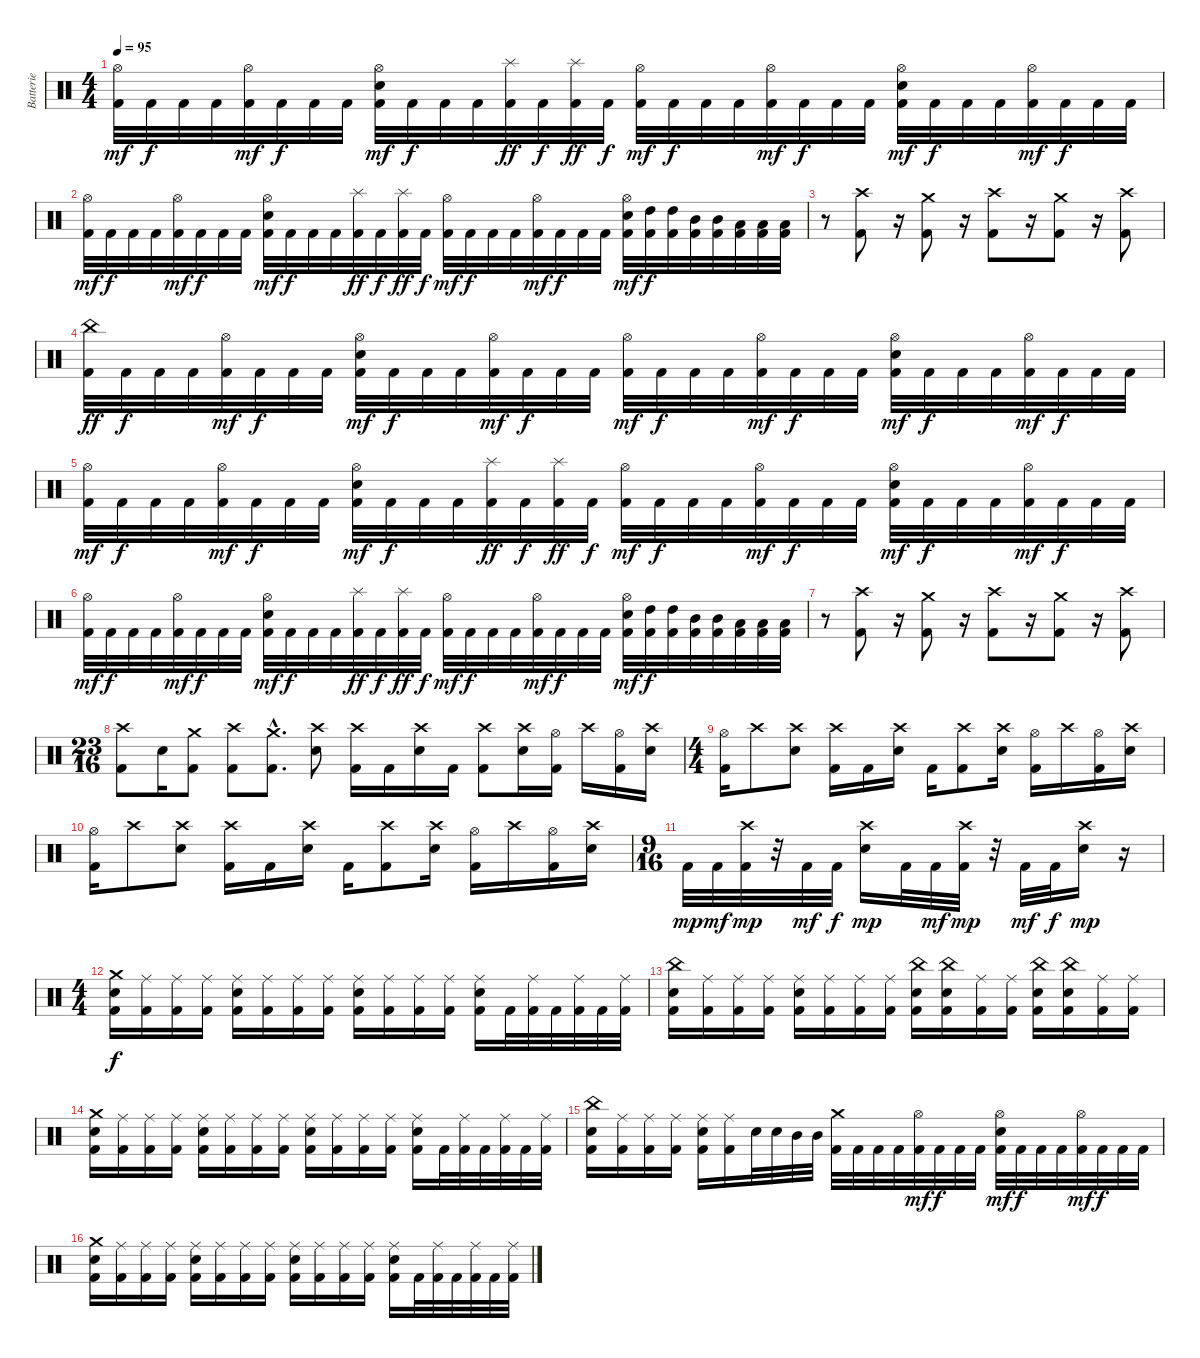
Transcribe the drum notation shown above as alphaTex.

\track ("Batterie" "Batterie") {instrument percussion}
\staff {score}
\articulation defaults
\ts (4 4)
\tempo 95
\clef neutral
\ks c
("Hi-Hat (open)" "Kick (hit) 2").32{dy mf} "Kick (hit) 2".32{dy f} "Kick (hit) 2".32 "Kick (hit) 2".32 ("Hi-Hat (open)" "Kick (hit) 2").32{dy mf} "Kick (hit) 2".32{dy f} "Kick (hit) 2".32 "Kick (hit) 2".32 ("Hi-Hat (open)" "Electric Snare (hit)" "Kick (hit) 2").32{dy mf} "Kick (hit) 2".32{dy f} "Kick (hit) 2".32 "Kick (hit) 2".32 ("Splash (hit)" "Kick (hit) 2").32{dy ff} "Kick (hit) 2".32{dy f} ("Splash (hit)" "Kick (hit) 2").32{dy ff} "Kick (hit) 2".32{dy f} ("Hi-Hat (open)" "Kick (hit) 2").32{dy mf} "Kick (hit) 2".32{dy f} "Kick (hit) 2".32 "Kick (hit) 2".32 ("Hi-Hat (open)" "Kick (hit) 2").32{dy mf} "Kick (hit) 2".32{dy f} "Kick (hit) 2".32 "Kick (hit) 2".32 ("Hi-Hat (open)" "Electric Snare (hit)" "Kick (hit) 2").32{dy mf} "Kick (hit) 2".32{dy f} "Kick (hit) 2".32 "Kick (hit) 2".32 ("Hi-Hat (open)" "Kick (hit) 2").32{dy mf} "Kick (hit) 2".32{dy f} "Kick (hit) 2".32 "Kick (hit) 2".32 |
("Hi-Hat (open)" "Kick (hit) 2").32{dy mf} "Kick (hit) 2".32{dy f} "Kick (hit) 2".32 "Kick (hit) 2".32 ("Hi-Hat (open)" "Kick (hit) 2").32{dy mf} "Kick (hit) 2".32{dy f} "Kick (hit) 2".32 "Kick (hit) 2".32 ("Hi-Hat (open)" "Electric Snare (hit)" "Kick (hit) 2").32{dy mf} "Kick (hit) 2".32{dy f} "Kick (hit) 2".32 "Kick (hit) 2".32 ("Splash (hit)" "Kick (hit) 2").32{dy ff} "Kick (hit) 2".32{dy f} ("Splash (hit)" "Kick (hit) 2").32{dy ff} "Kick (hit) 2".32{dy f} ("Hi-Hat (open)" "Kick (hit) 2").32{dy mf} "Kick (hit) 2".32{dy f} "Kick (hit) 2".32 "Kick (hit) 2".32 ("Hi-Hat (open)" "Kick (hit) 2").32{dy mf} "Kick (hit) 2".32{dy f} "Kick (hit) 2".32 "Kick (hit) 2".32 ("Hi-Hat (open)" "Electric Snare (hit)" "Kick (hit) 2").32{dy mf} ("High Tom (hit)" "Kick (hit) 2").32{dy f} ("High Tom (hit)" "Kick (hit) 2").32 ("Mid Tom (hit)" "Kick (hit) 2").32 ("Mid Tom (hit)" "Kick (hit) 2").32 ("Low Tom (hit)" "Kick (hit) 2").32 ("Low Tom (hit)" "Kick (hit) 2").32 ("Low Tom (hit)" "Kick (hit) 2").32 |
r.8 ("Crash high (hit)" "Kick (hit) 2").8 r.16 ("Crash medium (hit)" "Kick (hit) 2").8 r.16 ("Crash high (hit)" "Kick (hit) 2").8 r.16 ("Crash medium (hit)" "Kick (hit) 2").8 r.16 ("Crash high (hit)" "Kick (hit) 2").8 |
("China (hit)" "Kick (hit) 2").32{dy ff} "Kick (hit) 2".32{dy f} "Kick (hit) 2".32 "Kick (hit) 2".32 ("Hi-Hat (open)" "Kick (hit) 2").32{dy mf} "Kick (hit) 2".32{dy f} "Kick (hit) 2".32 "Kick (hit) 2".32 ("Hi-Hat (open)" "Electric Snare (hit)" "Kick (hit) 2").32{dy mf} "Kick (hit) 2".32{dy f} "Kick (hit) 2".32 "Kick (hit) 2".32 ("Hi-Hat (open)" "Kick (hit) 2").32{dy mf} "Kick (hit) 2".32{dy f} "Kick (hit) 2".32 "Kick (hit) 2".32 ("Hi-Hat (open)" "Kick (hit) 2").32{dy mf} "Kick (hit) 2".32{dy f} "Kick (hit) 2".32 "Kick (hit) 2".32 ("Hi-Hat (open)" "Kick (hit) 2").32{dy mf} "Kick (hit) 2".32{dy f} "Kick (hit) 2".32 "Kick (hit) 2".32 ("Hi-Hat (open)" "Electric Snare (hit)" "Kick (hit) 2").32{dy mf} "Kick (hit) 2".32{dy f} "Kick (hit) 2".32 "Kick (hit) 2".32 ("Hi-Hat (open)" "Kick (hit) 2").32{dy mf} "Kick (hit) 2".32{dy f} "Kick (hit) 2".32 "Kick (hit) 2".32 |
("Hi-Hat (open)" "Kick (hit) 2").32{dy mf} "Kick (hit) 2".32{dy f} "Kick (hit) 2".32 "Kick (hit) 2".32 ("Hi-Hat (open)" "Kick (hit) 2").32{dy mf} "Kick (hit) 2".32{dy f} "Kick (hit) 2".32 "Kick (hit) 2".32 ("Hi-Hat (open)" "Electric Snare (hit)" "Kick (hit) 2").32{dy mf} "Kick (hit) 2".32{dy f} "Kick (hit) 2".32 "Kick (hit) 2".32 ("Splash (hit)" "Kick (hit) 2").32{dy ff} "Kick (hit) 2".32{dy f} ("Splash (hit)" "Kick (hit) 2").32{dy ff} "Kick (hit) 2".32{dy f} ("Hi-Hat (open)" "Kick (hit) 2").32{dy mf} "Kick (hit) 2".32{dy f} "Kick (hit) 2".32 "Kick (hit) 2".32 ("Hi-Hat (open)" "Kick (hit) 2").32{dy mf} "Kick (hit) 2".32{dy f} "Kick (hit) 2".32 "Kick (hit) 2".32 ("Hi-Hat (open)" "Electric Snare (hit)" "Kick (hit) 2").32{dy mf} "Kick (hit) 2".32{dy f} "Kick (hit) 2".32 "Kick (hit) 2".32 ("Hi-Hat (open)" "Kick (hit) 2").32{dy mf} "Kick (hit) 2".32{dy f} "Kick (hit) 2".32 "Kick (hit) 2".32 |
("Hi-Hat (open)" "Kick (hit) 2").32{dy mf} "Kick (hit) 2".32{dy f} "Kick (hit) 2".32 "Kick (hit) 2".32 ("Hi-Hat (open)" "Kick (hit) 2").32{dy mf} "Kick (hit) 2".32{dy f} "Kick (hit) 2".32 "Kick (hit) 2".32 ("Hi-Hat (open)" "Electric Snare (hit)" "Kick (hit) 2").32{dy mf} "Kick (hit) 2".32{dy f} "Kick (hit) 2".32 "Kick (hit) 2".32 ("Splash (hit)" "Kick (hit) 2").32{dy ff} "Kick (hit) 2".32{dy f} ("Splash (hit)" "Kick (hit) 2").32{dy ff} "Kick (hit) 2".32{dy f} ("Hi-Hat (open)" "Kick (hit) 2").32{dy mf} "Kick (hit) 2".32{dy f} "Kick (hit) 2".32 "Kick (hit) 2".32 ("Hi-Hat (open)" "Kick (hit) 2").32{dy mf} "Kick (hit) 2".32{dy f} "Kick (hit) 2".32 "Kick (hit) 2".32 ("Hi-Hat (open)" "Electric Snare (hit)" "Kick (hit) 2").32{dy mf} ("High Tom (hit)" "Kick (hit) 2").32{dy f} ("High Tom (hit)" "Kick (hit) 2").32 ("Mid Tom (hit)" "Kick (hit) 2").32 ("Mid Tom (hit)" "Kick (hit) 2").32 ("Low Tom (hit)" "Kick (hit) 2").32 ("Low Tom (hit)" "Kick (hit) 2").32 ("Low Tom (hit)" "Kick (hit) 2").32 |
r.8 ("Crash high (hit)" "Kick (hit) 2").8 r.16 ("Crash medium (hit)" "Kick (hit) 2").8 r.16 ("Crash high (hit)" "Kick (hit) 2").8 r.16 ("Crash medium (hit)" "Kick (hit) 2").8 r.16 ("Crash high (hit)" "Kick (hit) 2").8 |
\ts (23 16)
("Crash high (hit)" "Kick (hit) 2").8 "Electric Snare (hit)".16 ("Crash medium (hit)" "Kick (hit) 2").8 ("Crash high (hit)" "Kick (hit) 2").8 ("Crash medium (hit)"{hac} "Kick (hit) 2"{hac}).8{d} ("Crash high (hit)" "Electric Snare (hit)").8 ("Crash high (hit)" "Kick (hit) 2").16 "Kick (hit) 2".16 ("Crash high (hit)" "Electric Snare (hit)").16 "Kick (hit) 2".16 ("Crash high (hit)" "Kick (hit) 2").8 ("Crash high (hit)" "Electric Snare (hit)").16 ("Hi-Hat (open)" "Kick (hit) 2").16 "Crash high (hit)".16 ("Hi-Hat (open)" "Kick (hit) 2").16 ("Crash high (hit)" "Electric Snare (hit)").16 |
\ts (4 4)
("Hi-Hat (open)" "Kick (hit) 2").16 "Crash high (hit)".8 ("Crash high (hit)" "Electric Snare (hit)").8 ("Crash high (hit)" "Kick (hit) 2").16 "Kick (hit) 2".16 ("Crash high (hit)" "Electric Snare (hit)").16 "Kick (hit) 2".16 ("Crash high (hit)" "Kick (hit) 2").8 ("Crash high (hit)" "Electric Snare (hit)").16 ("Hi-Hat (open)" "Kick (hit) 2").16 "Crash high (hit)".16 ("Hi-Hat (open)" "Kick (hit) 2").16 ("Crash high (hit)" "Electric Snare (hit)").16 |
("Hi-Hat (open)" "Kick (hit) 2").16 "Crash high (hit)".8 ("Crash high (hit)" "Electric Snare (hit)").8 ("Crash high (hit)" "Kick (hit) 2").16 "Kick (hit) 2".16 ("Crash high (hit)" "Electric Snare (hit)").16 "Kick (hit) 2".16 ("Crash high (hit)" "Kick (hit) 2").8 ("Crash high (hit)" "Electric Snare (hit)").16 ("Hi-Hat (open)" "Kick (hit) 2").16 "Crash high (hit)".16 ("Hi-Hat (open)" "Kick (hit) 2").16 ("Crash high (hit)" "Electric Snare (hit)").16 |
\ts (9 16)
"Kick (hit) 2".32{dy mp} "Kick (hit) 2".32{dy mf} ("Crash high (hit)" "Kick (hit) 2").32{dy mp} r.32 "Kick (hit) 2".32{dy mf} "Kick (hit) 2".32{dy f} ("Crash high (hit)" "Electric Snare (hit)").16{dy mp} "Kick (hit) 2".32 "Kick (hit) 2".32{dy mf} ("Crash high (hit)" "Kick (hit) 2").32{dy mp} r.32 "Kick (hit) 2".32{dy mf} "Kick (hit) 2".32{dy f} ("Crash high (hit)" "Electric Snare (hit)").16{dy mp} r.16 |
\ts (4 4)
("Crash medium (hit)" "Electric Snare (hit)" "Kick (hit) 2").16{dy f} ("Ride (middle)" "Kick (hit) 2").16 ("Ride (middle)" "Kick (hit) 2").16 ("Ride (middle)" "Kick (hit) 2").16 ("Ride (middle)" "Electric Snare (hit)" "Kick (hit) 2").16 ("Ride (middle)" "Kick (hit) 2").16 ("Ride (middle)" "Kick (hit) 2").16 ("Ride (middle)" "Kick (hit) 2").16 ("Ride (middle)" "Electric Snare (hit)" "Kick (hit) 2").16 ("Ride (middle)" "Kick (hit) 2").16 ("Ride (middle)" "Kick (hit) 2").16 ("Ride (middle)" "Kick (hit) 2").16 ("Ride (middle)" "Electric Snare (hit)" "Kick (hit) 2").16 "Kick (hit) 2".32 ("Ride (middle)" "Kick (hit) 2").32 "Kick (hit) 2".32 ("Ride (middle)" "Kick (hit) 2").32 "Kick (hit) 2".32 ("Ride (middle)" "Kick (hit) 2").32 |
("China (hit)" "Electric Snare (hit)" "Kick (hit) 2").16 ("Ride (middle)" "Kick (hit) 2").16 ("Ride (middle)" "Kick (hit) 2").16 ("Ride (middle)" "Kick (hit) 2").16 ("Ride (middle)" "Electric Snare (hit)" "Kick (hit) 2").16 ("Ride (middle)" "Kick (hit) 2").16 ("Ride (middle)" "Kick (hit) 2").16 ("Ride (middle)" "Kick (hit) 2").16 ("China (hit)" "Electric Snare (hit)" "Kick (hit) 2").16 ("China (hit)" "Electric Snare (hit)" "Kick (hit) 2").16 ("Ride (middle)" "Kick (hit) 2").16 ("Ride (middle)" "Kick (hit) 2").16 ("China (hit)" "Electric Snare (hit)" "Kick (hit) 2").16 ("China (hit)" "Electric Snare (hit)" "Kick (hit) 2").16 ("Ride (middle)" "Kick (hit) 2").16 ("Ride (middle)" "Kick (hit) 2").16 |
("Crash medium (hit)" "Electric Snare (hit)" "Kick (hit) 2").16 ("Ride (middle)" "Kick (hit) 2").16 ("Ride (middle)" "Kick (hit) 2").16 ("Ride (middle)" "Kick (hit) 2").16 ("Ride (middle)" "Electric Snare (hit)" "Kick (hit) 2").16 ("Ride (middle)" "Kick (hit) 2").16 ("Ride (middle)" "Kick (hit) 2").16 ("Ride (middle)" "Kick (hit) 2").16 ("Ride (middle)" "Electric Snare (hit)" "Kick (hit) 2").16 ("Ride (middle)" "Kick (hit) 2").16 ("Ride (middle)" "Kick (hit) 2").16 ("Ride (middle)" "Kick (hit) 2").16 ("Ride (middle)" "Electric Snare (hit)" "Kick (hit) 2").16 "Kick (hit) 2".32 ("Ride (middle)" "Kick (hit) 2").32 "Kick (hit) 2".32 ("Ride (middle)" "Kick (hit) 2").32 "Kick (hit) 2".32 ("Ride (middle)" "Kick (hit) 2").32 |
("China (hit)" "Electric Snare (hit)" "Kick (hit) 2").16 ("Ride (middle)" "Kick (hit) 2").16 ("Ride (middle)" "Kick (hit) 2").16 ("Ride (middle)" "Kick (hit) 2").16 ("Ride (middle)" "Electric Snare (hit)" "Kick (hit) 2").16 ("Ride (middle)" "Kick (hit) 2").16 "Electric Snare (hit)".32 "Electric Snare (hit)".32 "Mid Tom (hit)".32 "Mid Tom (hit)".32 ("Crash medium (hit)" "Kick (hit) 2").32 "Kick (hit) 2".32 "Kick (hit) 2".32 "Kick (hit) 2".32 ("Hi-Hat (open)" "Kick (hit) 2").32{dy mf} "Kick (hit) 2".32{dy f} "Kick (hit) 2".32 "Kick (hit) 2".32 ("Hi-Hat (open)" "Electric Snare (hit)" "Kick (hit) 2").32{dy mf} "Kick (hit) 2".32{dy f} "Kick (hit) 2".32 "Kick (hit) 2".32 ("Hi-Hat (open)" "Kick (hit) 2").32{dy mf} "Kick (hit) 2".32{dy f} "Kick (hit) 2".32 "Kick (hit) 2".32 |
("Crash medium (hit)" "Electric Snare (hit)" "Kick (hit) 2").16 ("Ride (middle)" "Kick (hit) 2").16 ("Ride (middle)" "Kick (hit) 2").16 ("Ride (middle)" "Kick (hit) 2").16 ("Ride (middle)" "Electric Snare (hit)" "Kick (hit) 2").16 ("Ride (middle)" "Kick (hit) 2").16 ("Ride (middle)" "Kick (hit) 2").16 ("Ride (middle)" "Kick (hit) 2").16 ("Ride (middle)" "Electric Snare (hit)" "Kick (hit) 2").16 ("Ride (middle)" "Kick (hit) 2").16 ("Ride (middle)" "Kick (hit) 2").16 ("Ride (middle)" "Kick (hit) 2").16 ("Ride (middle)" "Electric Snare (hit)" "Kick (hit) 2").16 "Kick (hit) 2".32 ("Ride (middle)" "Kick (hit) 2").32 "Kick (hit) 2".32 ("Ride (middle)" "Kick (hit) 2").32 "Kick (hit) 2".32 ("Ride (middle)" "Kick (hit) 2").32
